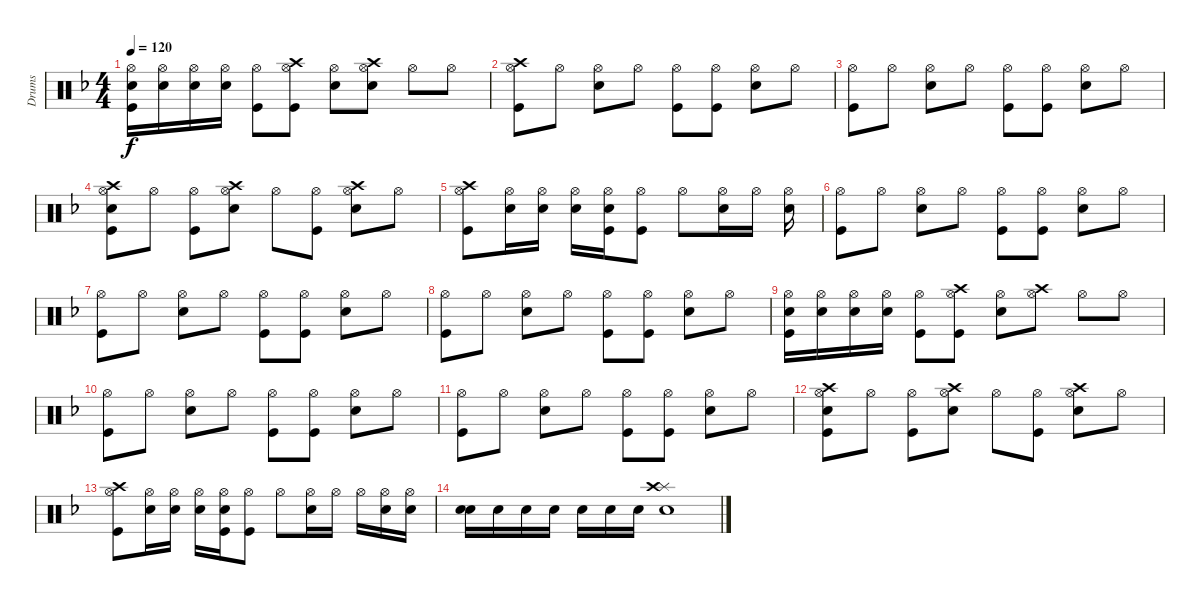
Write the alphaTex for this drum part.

\track ("Drums" "Drums") {instrument percussion}
\staff {score}
\articulation defaults
\ts (4 4)
\tempo 120
\clef neutral
\ks f
("Hi-Hat (open)" "Snare (hit) 2" "Kick (hit)").16{dy f} ("Hi-Hat (open)" "Snare (hit) 2").16 ("Hi-Hat (open)" "Snare (hit) 2").16 ("Hi-Hat (open)" "Snare (hit) 2").16 ("Hi-Hat (open)" "Kick (hit)").8 ("Hi-Hat (open)" "Crash high (hit)" "Kick (hit)").8 ("Hi-Hat (open)" "Snare (hit) 2").8 ("Hi-Hat (open)" "Crash high (hit)" "Snare (hit) 2").8 "Hi-Hat (open)".8 "Hi-Hat (open)".8 |
("Hi-Hat (open)" "Crash high (hit)" "Kick (hit)").8 "Hi-Hat (open)".8 ("Hi-Hat (open)" "Snare (hit) 2").8 "Hi-Hat (open)".8 ("Hi-Hat (open)" "Kick (hit)").8 ("Hi-Hat (open)" "Kick (hit)").8 ("Hi-Hat (open)" "Snare (hit) 2").8 "Hi-Hat (open)".8 |
("Hi-Hat (open)" "Kick (hit)").8 "Hi-Hat (open)".8 ("Hi-Hat (open)" "Snare (hit) 2").8 "Hi-Hat (open)".8 ("Hi-Hat (open)" "Kick (hit)").8 ("Hi-Hat (open)" "Kick (hit)").8 ("Hi-Hat (open)" "Snare (hit) 2").8 "Hi-Hat (open)".8 |
("Hi-Hat (open)" "Crash high (hit)" "Snare (hit) 2" "Kick (hit)").8 "Hi-Hat (open)".8 ("Hi-Hat (open)" "Kick (hit)").8 ("Hi-Hat (open)" "Crash high (hit)" "Snare (hit) 2").8 "Hi-Hat (open)".8 ("Hi-Hat (open)" "Kick (hit)").8 ("Hi-Hat (open)" "Crash high (hit)" "Snare (hit) 2").8 "Hi-Hat (open)".8 |
("Hi-Hat (open)" "Crash high (hit)" "Kick (hit)").8 ("Hi-Hat (open)" "Snare (hit) 2").16 ("Hi-Hat (open)" "Snare (hit) 2").16 ("Hi-Hat (open)" "Snare (hit) 2").16 ("Hi-Hat (open)" "Snare (hit) 2" "Kick (hit)").16 ("Hi-Hat (open)" "Kick (hit)").8 "Hi-Hat (open)".8 ("Hi-Hat (open)" "Snare (hit) 2").16 "Hi-Hat (open)".16 ("Hi-Hat (open)" "Snare (hit) 2").16 |
("Hi-Hat (open)" "Kick (hit)").8 "Hi-Hat (open)".8 ("Hi-Hat (open)" "Snare (hit) 2").8 "Hi-Hat (open)".8 ("Hi-Hat (open)" "Kick (hit)").8 ("Hi-Hat (open)" "Kick (hit)").8 ("Hi-Hat (open)" "Snare (hit) 2").8 "Hi-Hat (open)".8 |
("Hi-Hat (open)" "Kick (hit)").8 "Hi-Hat (open)".8 ("Hi-Hat (open)" "Snare (hit) 2").8 "Hi-Hat (open)".8 ("Hi-Hat (open)" "Kick (hit)").8 ("Hi-Hat (open)" "Kick (hit)").8 ("Hi-Hat (open)" "Snare (hit) 2").8 "Hi-Hat (open)".8 |
("Hi-Hat (open)" "Kick (hit)").8 "Hi-Hat (open)".8 ("Hi-Hat (open)" "Snare (hit) 2").8 "Hi-Hat (open)".8 ("Hi-Hat (open)" "Kick (hit)").8 ("Hi-Hat (open)" "Kick (hit)").8 ("Hi-Hat (open)" "Snare (hit) 2").8 "Hi-Hat (open)".8 |
("Hi-Hat (open)" "Snare (hit) 2" "Kick (hit)").16 ("Hi-Hat (open)" "Snare (hit) 2").16 ("Hi-Hat (open)" "Snare (hit) 2").16 ("Hi-Hat (open)" "Snare (hit) 2").16 ("Hi-Hat (open)" "Kick (hit)").8 ("Hi-Hat (open)" "Crash high (hit)" "Kick (hit)").8 ("Hi-Hat (open)" "Snare (hit) 2").8 ("Hi-Hat (open)" "Crash high (hit)").8 "Hi-Hat (open)".8 "Hi-Hat (open)".8 |
("Hi-Hat (open)" "Kick (hit)").8 "Hi-Hat (open)".8 ("Hi-Hat (open)" "Snare (hit) 2").8 "Hi-Hat (open)".8 ("Hi-Hat (open)" "Kick (hit)").8 ("Hi-Hat (open)" "Kick (hit)").8 ("Hi-Hat (open)" "Snare (hit) 2").8 "Hi-Hat (open)".8 |
("Hi-Hat (open)" "Kick (hit)").8 "Hi-Hat (open)".8 ("Hi-Hat (open)" "Snare (hit) 2").8 "Hi-Hat (open)".8 ("Hi-Hat (open)" "Kick (hit)").8 ("Hi-Hat (open)" "Kick (hit)").8 ("Hi-Hat (open)" "Snare (hit) 2").8 "Hi-Hat (open)".8 |
("Hi-Hat (open)" "Crash high (hit)" "Snare (hit) 2" "Kick (hit)").8 "Hi-Hat (open)".8 ("Hi-Hat (open)" "Kick (hit)").8 ("Hi-Hat (open)" "Crash high (hit)" "Snare (hit) 2").8 "Hi-Hat (open)".8 ("Hi-Hat (open)" "Kick (hit)").8 ("Hi-Hat (open)" "Crash high (hit)" "Snare (hit) 2").8 "Hi-Hat (open)".8 |
("Hi-Hat (open)" "Crash high (hit)" "Kick (hit)").8 ("Hi-Hat (open)" "Snare (hit) 2").16 ("Hi-Hat (open)" "Snare (hit) 2").16 ("Hi-Hat (open)" "Snare (hit) 2").16 ("Hi-Hat (open)" "Snare (hit) 2" "Kick (hit)").16 ("Hi-Hat (open)" "Kick (hit)").8 "Hi-Hat (open)".8 ("Hi-Hat (open)" "Snare (hit) 2").16 "Hi-Hat (open)".16 "Hi-Hat (open)".16 ("Hi-Hat (open)" "Snare (hit) 2").16 ("Hi-Hat (open)" "Snare (hit) 2").16 |
("Snare (hit) 2" "Snare (hit) 2").16 "Snare (hit) 2".16 "Snare (hit) 2".16 "Snare (hit) 2".16 "Snare (hit) 2".16 "Snare (hit) 2".16 "Snare (hit) 2".16 ("Splash (hit)" "Crash high (hit)" "Snare (hit) 2").1
